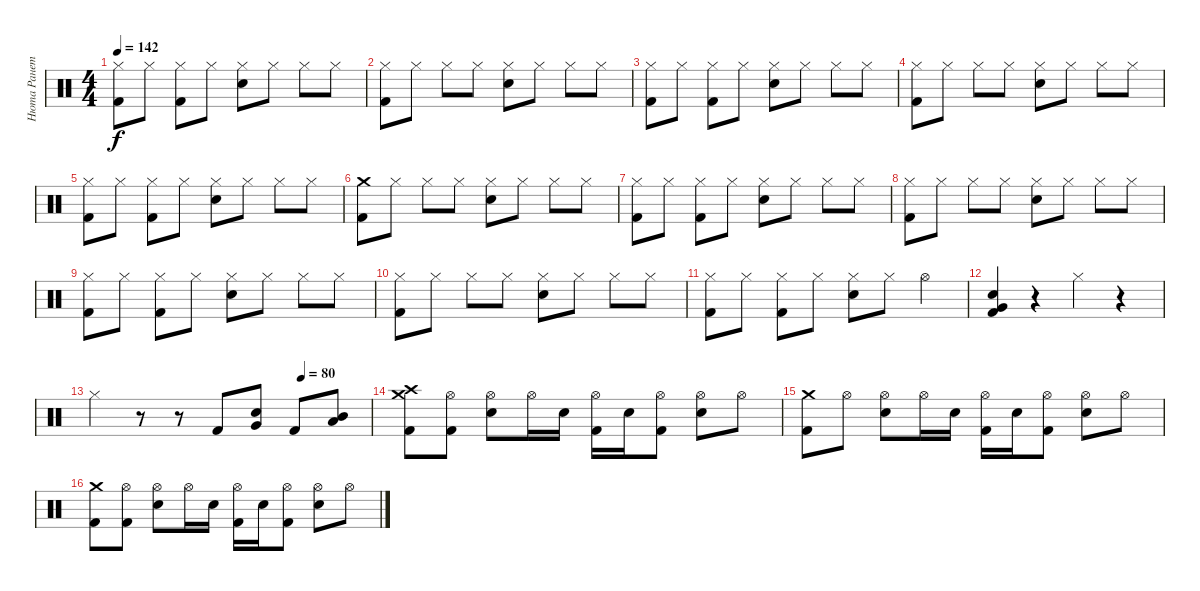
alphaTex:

\track ("Нюта Ранетка" "Нюта Ранет") {instrument percussion}
\staff {score}
\articulation defaults
\ts (4 4)
\tempo 142
\clef neutral
\ks c
("Hi-Hat (closed)" "Kick (hit) 2").8{dy f} "Hi-Hat (closed)".8 ("Hi-Hat (closed)" "Kick (hit) 2").8 "Hi-Hat (closed)".8 ("Hi-Hat (closed)" "Snare (hit) 2").8 "Hi-Hat (closed)".8 "Hi-Hat (closed)".8 "Hi-Hat (closed)".8 |
("Hi-Hat (closed)" "Kick (hit) 2").8 "Hi-Hat (closed)".8 "Hi-Hat (closed)".8 "Hi-Hat (closed)".8 ("Hi-Hat (closed)" "Snare (hit) 2").8 "Hi-Hat (closed)".8 "Hi-Hat (closed)".8 "Hi-Hat (closed)".8 |
("Hi-Hat (closed)" "Kick (hit) 2").8 "Hi-Hat (closed)".8 ("Hi-Hat (closed)" "Kick (hit) 2").8 "Hi-Hat (closed)".8 ("Hi-Hat (closed)" "Snare (hit) 2").8 "Hi-Hat (closed)".8 "Hi-Hat (closed)".8 "Hi-Hat (closed)".8 |
("Hi-Hat (closed)" "Kick (hit) 2").8 "Hi-Hat (closed)".8 "Hi-Hat (closed)".8 "Hi-Hat (closed)".8 ("Hi-Hat (closed)" "Snare (hit) 2").8 "Hi-Hat (closed)".8 "Hi-Hat (closed)".8 "Hi-Hat (closed)".8 |
("Hi-Hat (closed)" "Kick (hit) 2").8 "Hi-Hat (closed)".8 ("Hi-Hat (closed)" "Kick (hit) 2").8 "Hi-Hat (closed)".8 ("Hi-Hat (closed)" "Snare (hit) 2").8 "Hi-Hat (closed)".8 "Hi-Hat (closed)".8 "Hi-Hat (closed)".8 |
("Crash medium (hit)" "Kick (hit) 2").8 "Hi-Hat (closed)".8 "Hi-Hat (closed)".8 "Hi-Hat (closed)".8 ("Hi-Hat (closed)" "Snare (hit) 2").8 "Hi-Hat (closed)".8 "Hi-Hat (closed)".8 "Hi-Hat (closed)".8 |
("Hi-Hat (closed)" "Kick (hit) 2").8 "Hi-Hat (closed)".8 ("Hi-Hat (closed)" "Kick (hit) 2").8 "Hi-Hat (closed)".8 ("Hi-Hat (closed)" "Snare (hit) 2").8 "Hi-Hat (closed)".8 "Hi-Hat (closed)".8 "Hi-Hat (closed)".8 |
("Hi-Hat (closed)" "Kick (hit) 2").8 "Hi-Hat (closed)".8 "Hi-Hat (closed)".8 "Hi-Hat (closed)".8 ("Hi-Hat (closed)" "Snare (hit) 2").8 "Hi-Hat (closed)".8 "Hi-Hat (closed)".8 "Hi-Hat (closed)".8 |
("Hi-Hat (closed)" "Kick (hit) 2").8 "Hi-Hat (closed)".8 ("Hi-Hat (closed)" "Kick (hit) 2").8 "Hi-Hat (closed)".8 ("Hi-Hat (closed)" "Snare (hit) 2").8 "Hi-Hat (closed)".8 "Hi-Hat (closed)".8 "Hi-Hat (closed)".8 |
("Hi-Hat (closed)" "Kick (hit) 2").8 "Hi-Hat (closed)".8 "Hi-Hat (closed)".8 "Hi-Hat (closed)".8 ("Hi-Hat (closed)" "Snare (hit) 2").8 "Hi-Hat (closed)".8 "Hi-Hat (closed)".8 "Hi-Hat (closed)".8 |
("Hi-Hat (closed)" "Kick (hit) 2").8 "Hi-Hat (closed)".8 ("Hi-Hat (closed)" "Kick (hit) 2").8 "Hi-Hat (closed)".8 ("Hi-Hat (closed)" "Snare (hit) 2").8 "Hi-Hat (closed)".8 "Hi-Hat (open)".4 |
("Very Low Tom (hit)" "Snare (hit) 2" "Kick (hit) 2").4 r.4 "Hi-Hat (closed)".4 r.4 |
\tempo (80 0.75)
"Hi-Hat (closed)".4 r.8 r.8 "Kick (hit) 2".8 ("Very Low Tom (hit)" "Snare (hit) 2").8 "Kick (hit) 2".8 ("Low Tom (hit)" "Mid Tom (hit)").8 |
("Crash medium (hit)" "Crash high (hit)" "Kick (hit) 2").8 ("Hi-Hat (open)" "Kick (hit) 2").8 ("Hi-Hat (open)" "Snare (hit) 2").8 "Hi-Hat (open)".16 "Snare (hit) 2".16 ("Hi-Hat (open)" "Kick (hit) 2").16 "Snare (hit) 2".16 ("Hi-Hat (open)" "Kick (hit) 2").8 ("Hi-Hat (open)" "Snare (hit) 2").8 "Hi-Hat (open)".8 |
("Crash medium (hit)" "Kick (hit) 2").8 "Hi-Hat (open)".8 ("Hi-Hat (open)" "Snare (hit) 2").8 "Hi-Hat (open)".16 "Snare (hit) 2".16 ("Hi-Hat (open)" "Kick (hit) 2").16 "Snare (hit) 2".16 ("Hi-Hat (open)" "Kick (hit) 2").8 ("Hi-Hat (open)" "Snare (hit) 2").8 "Hi-Hat (open)".8 |
("Crash medium (hit)" "Kick (hit) 2").8 ("Hi-Hat (open)" "Kick (hit) 2").8 ("Hi-Hat (open)" "Snare (hit) 2").8 "Hi-Hat (open)".16 "Snare (hit) 2".16 ("Hi-Hat (open)" "Kick (hit) 2").16 "Snare (hit) 2".16 ("Hi-Hat (open)" "Kick (hit) 2").8 ("Hi-Hat (open)" "Snare (hit) 2").8 "Hi-Hat (open)".8
